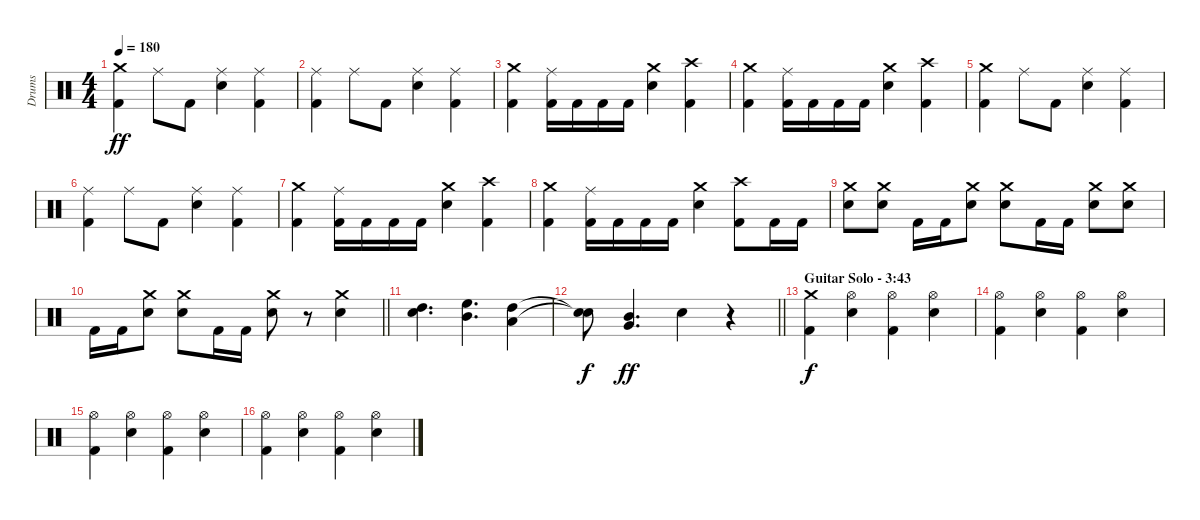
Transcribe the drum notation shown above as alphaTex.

\track ("Drums" "Drums") {instrument percussion}
\staff {score}
\articulation defaults
\ts (4 4)
\tempo 180
\clef neutral
\ks c
("Crash medium (hit)" "Kick (hit) 2").4{dy ff} "Ride (middle)".8 "Kick (hit) 2".8 ("Ride (middle)" "Electric Snare (hit)").4 ("Ride (middle)" "Kick (hit) 2").4 |
("Ride (middle)" "Kick (hit) 2").4 "Ride (middle)".8 "Kick (hit) 2".8 ("Ride (middle)" "Electric Snare (hit)").4 ("Ride (middle)" "Kick (hit) 2").4 |
("Crash medium (hit)" "Kick (hit) 2").4 ("Ride (middle)" "Kick (hit) 2").16 "Kick (hit) 2".16 "Kick (hit) 2".16 "Kick (hit) 2".16 ("Crash medium (hit)" "Electric Snare (hit)").4 ("Crash high (hit)" "Kick (hit) 2").4 |
("Crash medium (hit)" "Kick (hit) 2").4 ("Ride (middle)" "Kick (hit) 2").16 "Kick (hit) 2".16 "Kick (hit) 2".16 "Kick (hit) 2".16 ("Crash medium (hit)" "Electric Snare (hit)").4 ("Crash high (hit)" "Kick (hit) 2").4 |
("Crash medium (hit)" "Kick (hit) 2").4 "Ride (middle)".8 "Kick (hit) 2".8 ("Ride (middle)" "Electric Snare (hit)").4 ("Ride (middle)" "Kick (hit) 2").4 |
("Ride (middle)" "Kick (hit) 2").4 "Ride (middle)".8 "Kick (hit) 2".8 ("Ride (middle)" "Electric Snare (hit)").4 ("Ride (middle)" "Kick (hit) 2").4 |
("Crash medium (hit)" "Kick (hit) 2").4 ("Ride (middle)" "Kick (hit) 2").16 "Kick (hit) 2".16 "Kick (hit) 2".16 "Kick (hit) 2".16 ("Crash medium (hit)" "Electric Snare (hit)").4 ("Crash high (hit)" "Kick (hit) 2").4 |
("Crash medium (hit)" "Kick (hit) 2").4 ("Ride (middle)" "Kick (hit) 2").16 "Kick (hit) 2".16 "Kick (hit) 2".16 "Kick (hit) 2".16 ("Crash medium (hit)" "Electric Snare (hit)").4 ("Crash high (hit)" "Kick (hit) 2").8 "Kick (hit) 2".16 "Kick (hit) 2".16 |
("Crash medium (hit)" "Electric Snare (hit)").8 ("Crash medium (hit)" "Electric Snare (hit)").8 "Kick (hit) 2".16 "Kick (hit) 2".16 ("Crash medium (hit)" "Electric Snare (hit)").8 ("Crash medium (hit)" "Electric Snare (hit)").8 "Kick (hit) 2".16 "Kick (hit) 2".16 ("Crash medium (hit)" "Electric Snare (hit)").8 ("Crash medium (hit)" "Electric Snare (hit)").8 |
\barLineRight lightlight "Kick (hit) 2".16 "Kick (hit) 2".16
("Crash medium (hit)" "Electric Snare (hit)").8 ("Crash medium (hit)" "Electric Snare (hit)").8 "Kick (hit) 2".16 "Kick (hit) 2".16 ("Crash medium (hit)" "Electric Snare (hit)").8 r.8 ("Crash medium (hit)" "Electric Snare (hit)").4 |
("Electric Snare (hit)" "High Tom (hit)").4{d} ("High Floor Tom (hit)" "Mid Tom (hit)").4{d} ("High Tom (hit)" "Low Tom (hit)").4 |
\barLineRight lightlight
("Snare (hit)"{t} "Snare (hit)"{t}).8{dy f} ("Mid Tom (hit)" "Very Low Tom (hit)").4{d dy ff} "Electric Snare (hit)".4 r.4 |
\section ("" "Guitar Solo - 3:43")
("Crash medium (hit)" "Kick (hit) 2").4{dy f} ("Hi-Hat (open)" "Electric Snare (hit)").4 ("Hi-Hat (open)" "Kick (hit) 2").4 ("Hi-Hat (open)" "Electric Snare (hit)").4 |
("Hi-Hat (open)" "Kick (hit) 2").4 ("Hi-Hat (open)" "Electric Snare (hit)").4 ("Hi-Hat (open)" "Kick (hit) 2").4 ("Hi-Hat (open)" "Electric Snare (hit)").4 |
("Hi-Hat (open)" "Kick (hit) 2").4 ("Hi-Hat (open)" "Electric Snare (hit)").4 ("Hi-Hat (open)" "Kick (hit) 2").4 ("Hi-Hat (open)" "Electric Snare (hit)").4 |
("Hi-Hat (open)" "Kick (hit) 2").4 ("Hi-Hat (open)" "Electric Snare (hit)").4 ("Hi-Hat (open)" "Kick (hit) 2").4 ("Hi-Hat (open)" "Electric Snare (hit)").4
